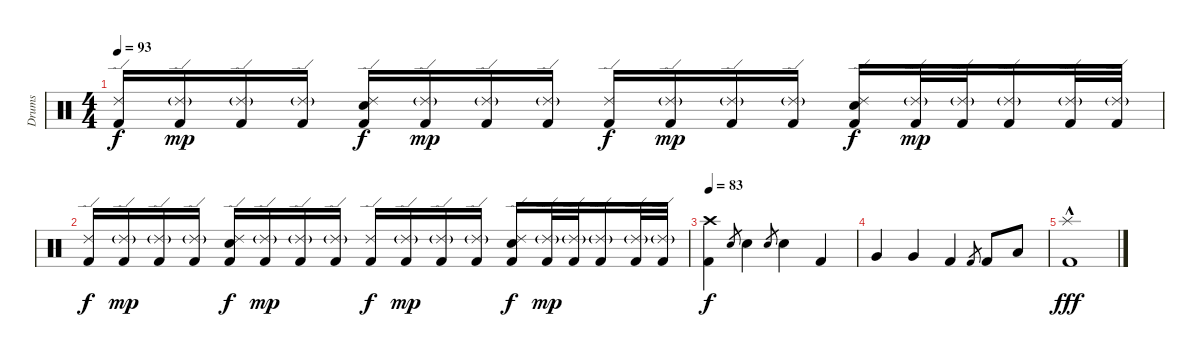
\track ("Drums" "Drums") {instrument percussion}
\staff {score}
\articulation defaults
\ts (4 4)
\tempo 93
\clef neutral
\ks c
("Ride (edge) 2" "Kick (hit) 2").16{dy f} ("Ride (edge) 2"{g} "Kick (hit) 2").16{dy mp} ("Ride (edge) 2"{g} "Kick (hit) 2").16 ("Ride (edge) 2"{g} "Kick (hit) 2").16 ("Ride (edge) 2" "Snare (hit) 2" "Kick (hit) 2").16{dy f} ("Ride (edge) 2"{g} "Kick (hit) 2").16{dy mp} ("Ride (edge) 2"{g} "Kick (hit) 2").16 ("Ride (edge) 2"{g} "Kick (hit) 2").16 ("Ride (edge) 2" "Kick (hit) 2").16{dy f} ("Ride (edge) 2"{g} "Kick (hit) 2").16{dy mp} ("Ride (edge) 2"{g} "Kick (hit) 2").16 ("Ride (edge) 2"{g} "Kick (hit) 2").16 ("Ride (edge) 2" "Snare (hit) 2" "Kick (hit) 2").16{dy f} ("Ride (edge) 2"{g} "Kick (hit) 2").32{dy mp} ("Ride (edge) 2"{g} "Kick (hit) 2").32 ("Ride (edge) 2"{g} "Kick (hit) 2").16 ("Ride (edge) 2"{g} "Kick (hit) 2").32 ("Ride (edge) 2"{g} "Kick (hit) 2").32 |
("Ride (edge) 2" "Kick (hit) 2").16{dy f} ("Ride (edge) 2"{g} "Kick (hit) 2").16{dy mp} ("Ride (edge) 2"{g} "Kick (hit) 2").16 ("Ride (edge) 2"{g} "Kick (hit) 2").16 ("Ride (edge) 2" "Snare (hit) 2" "Kick (hit) 2").16{dy f} ("Ride (edge) 2"{g} "Kick (hit) 2").16{dy mp} ("Ride (edge) 2"{g} "Kick (hit) 2").16 ("Ride (edge) 2"{g} "Kick (hit) 2").16 ("Ride (edge) 2" "Kick (hit) 2").16{dy f} ("Ride (edge) 2"{g} "Kick (hit) 2").16{dy mp} ("Ride (edge) 2"{g} "Kick (hit) 2").16 ("Ride (edge) 2"{g} "Kick (hit) 2").16 ("Ride (edge) 2" "Snare (hit) 2" "Kick (hit) 2").16{dy f} ("Ride (edge) 2"{g} "Kick (hit) 2").32{dy mp} ("Ride (edge) 2"{g} "Kick (hit) 2").32 ("Ride (edge) 2"{g} "Kick (hit) 2").16 ("Ride (edge) 2"{g} "Kick (hit) 2").32 ("Ride (edge) 2"{g} "Kick (hit) 2").32 |
\tempo 83
("Crash high (hit)" "Kick (hit) 2").4{dy f} "Snare (hit) 2".8{gr} "Snare (hit) 2".4 "Snare (hit) 2".8{gr} "Snare (hit) 2".4 "Kick (hit) 2".4 |
"Very Low Tom (hit)".4 "Very Low Tom (hit)".4 "Kick (hit) 2".4 "Kick (hit) 2".8{gr} "Kick (hit) 2".8 "Low Floor Tom (hit)".8 |
("Splash (hit)"{hac} "Kick (hit) 2"{hac}).1{dy fff}
